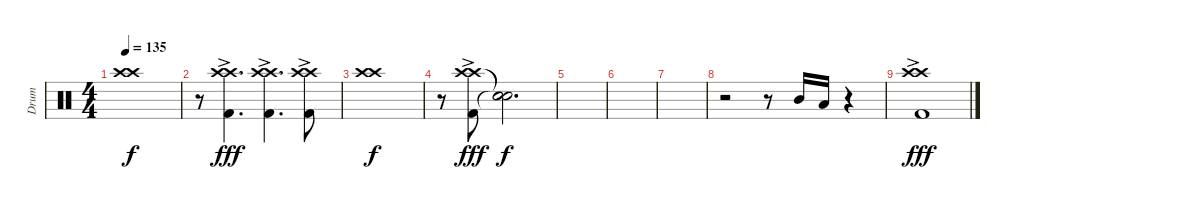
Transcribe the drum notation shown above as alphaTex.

\track ("Drum" "Drum") {instrument percussion}
\staff {score}
\articulation defaults
\ts (4 4)
\tempo 135
\clef neutral
\ks c
("Crash high (hit)"{tr (49 64)} "Crash high (hit)"{tr (49 64)}).1{dy f} |
r.8 ("Crash high (hit)"{ac} "Crash high (hit)"{ac} "Kick (hit) 2"{ac}).4{d dy fff} ("Crash high (hit)"{ac} "Crash high (hit)"{ac} "Kick (hit) 2"{ac}).4{d} ("Crash high (hit)"{ac} "Crash high (hit)"{ac} "Kick (hit) 2"{ac}).8 |
("Crash high (hit)"{tr (49 64)} "Crash high (hit)"{tr (49 64)}).1{dy f} |
r.8 ("Crash high (hit)"{ac} "Crash high (hit)"{ac} "Kick (hit) 2").8{dy fff} ("Snare (hit)"{t} "Snare (hit)"{t} "Snare (hit)"{t}).2{d dy f} |
|
|
|
r.2 r.8 "Mid Tom (hit)".16 "Low Tom (hit)".16 r.4 |
("Crash high (hit)"{ac} "Crash high (hit)"{ac} "Kick (hit) 2"{ac}).1{dy fff}
